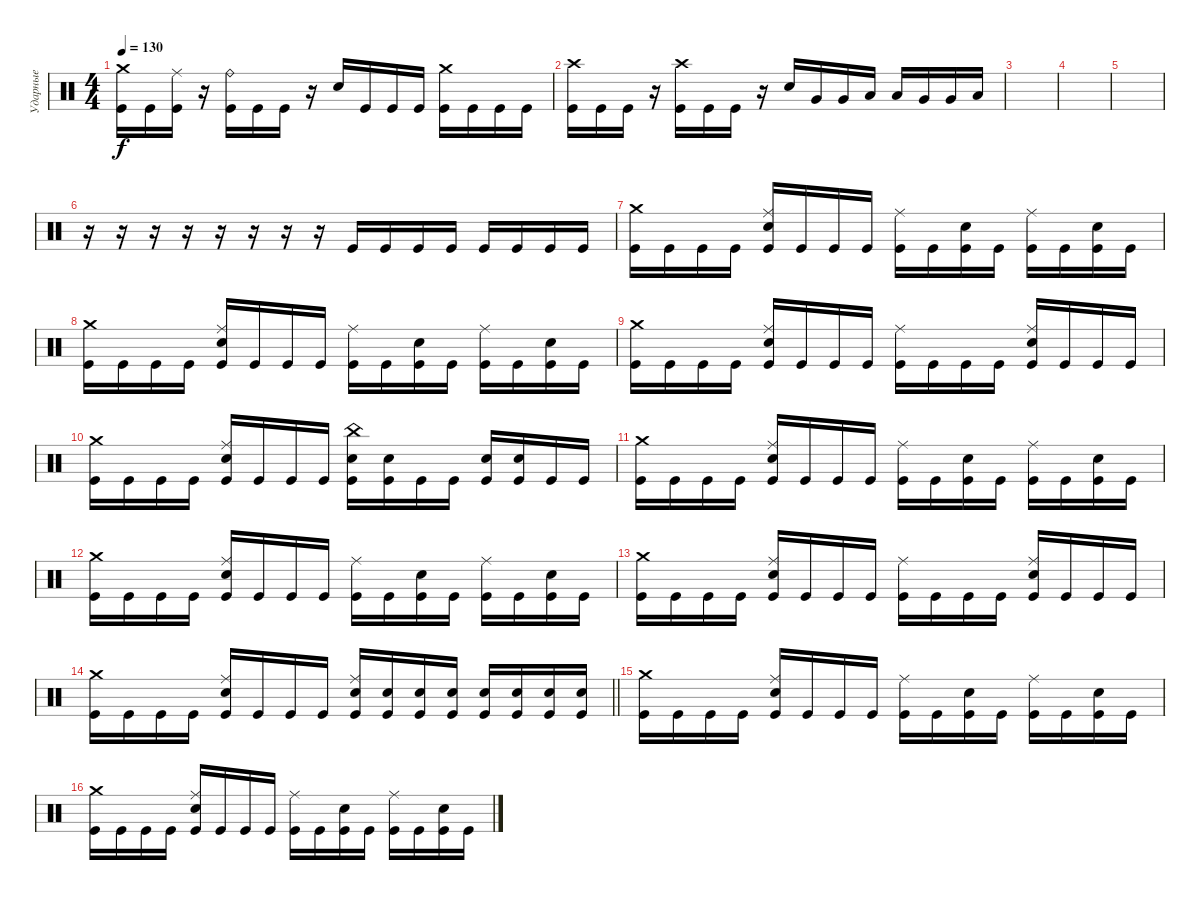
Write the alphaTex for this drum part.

\track ("Ударные" "Ударные") {instrument percussion}
\staff {score}
\articulation defaults
\ts (4 4)
\tempo 130
\clef neutral
\ks c
("Crash medium (hit)" "Kick (hit)").16{dy f} "Kick (hit)".16 ("Ride (middle)" "Kick (hit)").16 r.16 ("Ride (bell)" "Kick (hit)").16 "Kick (hit)".16 "Kick (hit)".16 r.16 "Electric Snare (hit)".16 "Kick (hit)".16 "Kick (hit)".16 "Kick (hit)".16 ("Crash medium (hit)" "Kick (hit)").16 "Kick (hit)".16 "Kick (hit)".16 "Kick (hit)".16 |
("Crash high (hit)" "Kick (hit)").16 "Kick (hit)".16 "Kick (hit)".16 r.16 ("Crash high (hit)" "Kick (hit)").16 "Kick (hit)".16 "Kick (hit)".16 r.16 "Electric Snare (hit)".16 "Very Low Tom (hit)".16 "Very Low Tom (hit)".16 "Low Tom (hit)".16 "Low Tom (hit)".16 "Very Low Tom (hit)".16 "Very Low Tom (hit)".16 "Low Floor Tom (hit)".16 |
|
|
|
r.16 r.16 r.16 r.16 r.16 r.16 r.16 r.16 "Kick (hit)".16 "Kick (hit)".16 "Kick (hit)".16 "Kick (hit)".16 "Kick (hit)".16 "Kick (hit)".16 "Kick (hit)".16 "Kick (hit)".16 |
("Crash medium (hit)" "Kick (hit)").16 "Kick (hit)".16 "Kick (hit)".16 "Kick (hit)".16 ("Ride (middle)" "Electric Snare (hit)" "Kick (hit)").16 "Kick (hit)".16 "Kick (hit)".16 "Kick (hit)".16 ("Ride (middle)" "Kick (hit)").16 "Kick (hit)".16 ("Electric Snare (hit)" "Kick (hit)").16 "Kick (hit)".16 ("Ride (middle)" "Kick (hit)").16 "Kick (hit)".16 ("Electric Snare (hit)" "Kick (hit)").16 "Kick (hit)".16 |
("Crash medium (hit)" "Kick (hit)").16 "Kick (hit)".16 "Kick (hit)".16 "Kick (hit)".16 ("Ride (middle)" "Electric Snare (hit)" "Kick (hit)").16 "Kick (hit)".16 "Kick (hit)".16 "Kick (hit)".16 ("Ride (middle)" "Kick (hit)").16 "Kick (hit)".16 ("Electric Snare (hit)" "Kick (hit)").16 "Kick (hit)".16 ("Ride (middle)" "Kick (hit)").16 "Kick (hit)".16 ("Electric Snare (hit)" "Kick (hit)").16 "Kick (hit)".16 |
("Crash medium (hit)" "Kick (hit)").16 "Kick (hit)".16 "Kick (hit)".16 "Kick (hit)".16 ("Ride (middle)" "Electric Snare (hit)" "Kick (hit)").16 "Kick (hit)".16 "Kick (hit)".16 "Kick (hit)".16 ("Ride (middle)" "Kick (hit)").16 "Kick (hit)".16 "Kick (hit)".16 "Kick (hit)".16 ("Ride (middle)" "Electric Snare (hit)" "Kick (hit)").16 "Kick (hit)".16 "Kick (hit)".16 "Kick (hit)".16 |
("Crash medium (hit)" "Kick (hit)").16 "Kick (hit)".16 "Kick (hit)".16 "Kick (hit)".16 ("Ride (middle)" "Electric Snare (hit)" "Kick (hit)").16 "Kick (hit)".16 "Kick (hit)".16 "Kick (hit)".16 ("China (hit)" "Electric Snare (hit)" "Kick (hit)").16 ("Electric Snare (hit)" "Kick (hit)").16 "Kick (hit)".16 "Kick (hit)".16 ("Electric Snare (hit)" "Kick (hit)").16 ("Electric Snare (hit)" "Kick (hit)").16 "Kick (hit)".16 "Kick (hit)".16 |
("Crash medium (hit)" "Kick (hit)").16 "Kick (hit)".16 "Kick (hit)".16 "Kick (hit)".16 ("Ride (middle)" "Electric Snare (hit)" "Kick (hit)").16 "Kick (hit)".16 "Kick (hit)".16 "Kick (hit)".16 ("Ride (middle)" "Kick (hit)").16 "Kick (hit)".16 ("Electric Snare (hit)" "Kick (hit)").16 "Kick (hit)".16 ("Ride (middle)" "Kick (hit)").16 "Kick (hit)".16 ("Electric Snare (hit)" "Kick (hit)").16 "Kick (hit)".16 |
("Crash medium (hit)" "Kick (hit)").16 "Kick (hit)".16 "Kick (hit)".16 "Kick (hit)".16 ("Ride (middle)" "Electric Snare (hit)" "Kick (hit)").16 "Kick (hit)".16 "Kick (hit)".16 "Kick (hit)".16 ("Ride (middle)" "Kick (hit)").16 "Kick (hit)".16 ("Electric Snare (hit)" "Kick (hit)").16 "Kick (hit)".16 ("Ride (middle)" "Kick (hit)").16 "Kick (hit)".16 ("Electric Snare (hit)" "Kick (hit)").16 "Kick (hit)".16 |
("Crash medium (hit)" "Kick (hit)").16 "Kick (hit)".16 "Kick (hit)".16 "Kick (hit)".16 ("Ride (middle)" "Electric Snare (hit)" "Kick (hit)").16 "Kick (hit)".16 "Kick (hit)".16 "Kick (hit)".16 ("Ride (middle)" "Kick (hit)").16 "Kick (hit)".16 "Kick (hit)".16 "Kick (hit)".16 ("Ride (middle)" "Electric Snare (hit)" "Kick (hit)").16 "Kick (hit)".16 "Kick (hit)".16 "Kick (hit)".16 |
\barLineRight lightlight
("Crash medium (hit)" "Kick (hit)").16 "Kick (hit)".16 "Kick (hit)".16 "Kick (hit)".16 ("Ride (middle)" "Electric Snare (hit)" "Kick (hit)").16 "Kick (hit)".16 "Kick (hit)".16 "Kick (hit)".16 ("Ride (middle)" "Electric Snare (hit)" "Kick (hit)").16 ("Electric Snare (hit)" "Kick (hit)").16 ("Electric Snare (hit)" "Kick (hit)").16 ("Electric Snare (hit)" "Kick (hit)").16 ("Electric Snare (hit)" "Kick (hit)").16 ("Electric Snare (hit)" "Kick (hit)").16 ("Electric Snare (hit)" "Kick (hit)").16 ("Electric Snare (hit)" "Kick (hit)").16 |
\section ("" " ")
("Crash medium (hit)" "Kick (hit)").16 "Kick (hit)".16 "Kick (hit)".16 "Kick (hit)".16 ("Ride (middle)" "Electric Snare (hit)" "Kick (hit)").16 "Kick (hit)".16 "Kick (hit)".16 "Kick (hit)".16 ("Ride (middle)" "Kick (hit)").16 "Kick (hit)".16 ("Electric Snare (hit)" "Kick (hit)").16 "Kick (hit)".16 ("Ride (middle)" "Kick (hit)").16 "Kick (hit)".16 ("Electric Snare (hit)" "Kick (hit)").16 "Kick (hit)".16 |
("Crash medium (hit)" "Kick (hit)").16 "Kick (hit)".16 "Kick (hit)".16 "Kick (hit)".16 ("Ride (middle)" "Electric Snare (hit)" "Kick (hit)").16 "Kick (hit)".16 "Kick (hit)".16 "Kick (hit)".16 ("Ride (middle)" "Kick (hit)").16 "Kick (hit)".16 ("Electric Snare (hit)" "Kick (hit)").16 "Kick (hit)".16 ("Ride (middle)" "Kick (hit)").16 "Kick (hit)".16 ("Electric Snare (hit)" "Kick (hit)").16 "Kick (hit)".16
